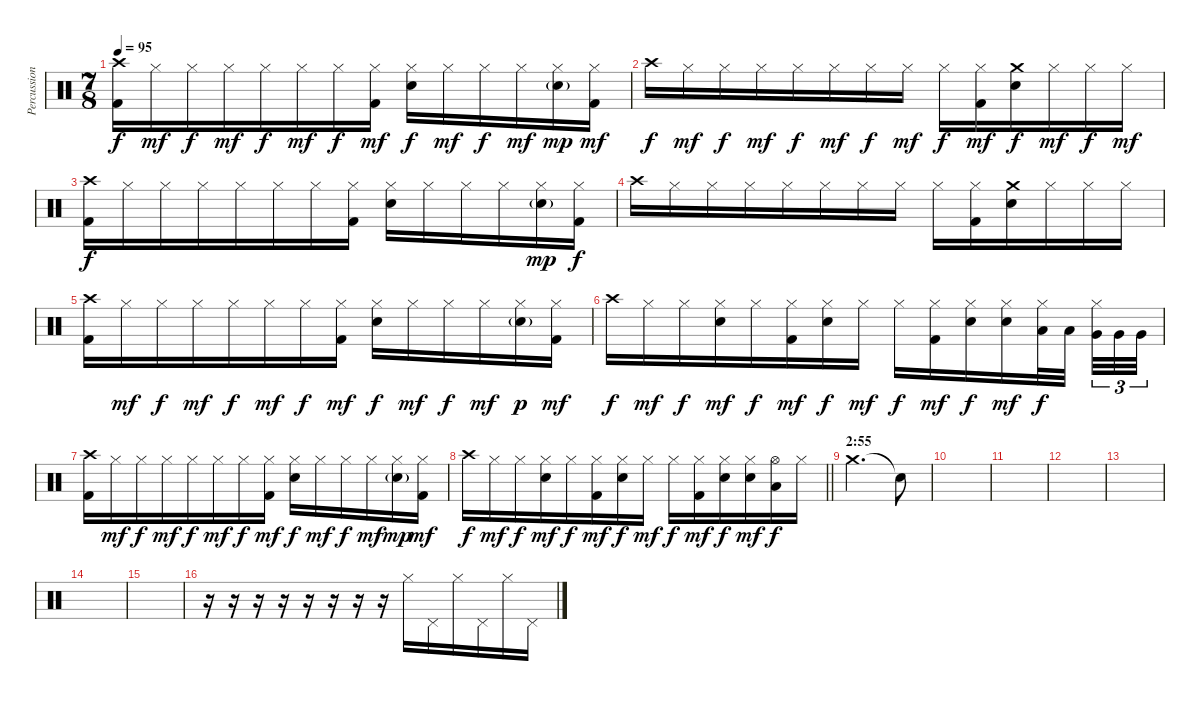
\track ("Percussion" "Percussion") {instrument percussion}
\staff {score}
\articulation defaults
\ts (7 8)
\tempo 95
\clef neutral
\ks c
("Crash high (hit)" "Kick (hit) 2").16{dy f} "Hi-Hat (closed)".16{dy mf} "Hi-Hat (closed)".16{dy f} "Hi-Hat (closed)".16{dy mf} "Hi-Hat (closed)".16{dy f} "Hi-Hat (closed)".16{dy mf} "Hi-Hat (closed)".16{dy f} ("Hi-Hat (closed)" "Kick (hit) 2").16{dy mf} ("Hi-Hat (closed)" "Electric Snare (hit)").16{dy f} "Hi-Hat (closed)".16{dy mf} "Hi-Hat (closed)".16{dy f} "Hi-Hat (closed)".16{dy mf} ("Hi-Hat (closed)" "Electric Snare (hit)"{g}).16{dy mp} ("Hi-Hat (closed)" "Kick (hit) 2").16{dy mf} |
"Crash high (hit)".16{dy f} "Hi-Hat (closed)".16{dy mf} "Hi-Hat (closed)".16{dy f} "Hi-Hat (closed)".16{dy mf} "Hi-Hat (closed)".16{dy f} "Hi-Hat (closed)".16{dy mf} "Hi-Hat (closed)".16{dy f} "Hi-Hat (closed)".16{dy mf} "Hi-Hat (closed)".16{dy f} ("Hi-Hat (closed)" "Kick (hit) 2").16{dy mf} ("Crash medium (hit)" "Electric Snare (hit)").16{dy f} "Hi-Hat (closed)".16{dy mf} "Hi-Hat (closed)".16{dy f} "Hi-Hat (closed)".16{dy mf} |
("Crash high (hit)" "Kick (hit) 2").16{dy f} "Hi-Hat (closed)".16 "Hi-Hat (closed)".16 "Hi-Hat (closed)".16 "Hi-Hat (closed)".16 "Hi-Hat (closed)".16 "Hi-Hat (closed)".16 ("Hi-Hat (closed)" "Kick (hit) 2").16 ("Hi-Hat (closed)" "Electric Snare (hit)").16 "Hi-Hat (closed)".16 "Hi-Hat (closed)".16 "Hi-Hat (closed)".16 ("Hi-Hat (closed)" "Electric Snare (hit)"{g}).16{dy mp} ("Hi-Hat (closed)" "Kick (hit) 2").16{dy f} |
"Crash high (hit)".16 "Hi-Hat (closed)".16 "Hi-Hat (closed)".16 "Hi-Hat (closed)".16 "Hi-Hat (closed)".16 "Hi-Hat (closed)".16 "Hi-Hat (closed)".16 "Hi-Hat (closed)".16 "Hi-Hat (closed)".16 ("Hi-Hat (closed)" "Kick (hit) 2").16 ("Crash medium (hit)" "Electric Snare (hit)").16 "Hi-Hat (closed)".16 "Hi-Hat (closed)".16 "Hi-Hat (closed)".16 |
("Crash high (hit)" "Kick (hit) 2").16 "Hi-Hat (closed)".16{dy mf} "Hi-Hat (closed)".16{dy f} "Hi-Hat (closed)".16{dy mf} "Hi-Hat (closed)".16{dy f} "Hi-Hat (closed)".16{dy mf} "Hi-Hat (closed)".16{dy f} ("Hi-Hat (closed)" "Kick (hit) 2").16{dy mf} ("Hi-Hat (closed)" "Electric Snare (hit)").16{dy f} "Hi-Hat (closed)".16{dy mf} "Hi-Hat (closed)".16{dy f} "Hi-Hat (closed)".16{dy mf} ("Hi-Hat (closed)" "Electric Snare (hit)"{g}).16{dy p} ("Hi-Hat (closed)" "Kick (hit) 2").16{dy mf} |
"Crash high (hit)".16{dy f} "Hi-Hat (closed)".16{dy mf} "Hi-Hat (closed)".16{dy f} ("Hi-Hat (closed)" "Electric Snare (hit)").16{dy mf} "Hi-Hat (closed)".16{dy f} ("Hi-Hat (closed)" "Kick (hit) 2").16{dy mf} ("Hi-Hat (closed)" "Electric Snare (hit)").16{dy f} "Hi-Hat (closed)".16{dy mf} "Hi-Hat (closed)".16{dy f} ("Hi-Hat (closed)" "Kick (hit) 2").16{dy mf} ("Hi-Hat (closed)" "Electric Snare (hit)").16{dy f} ("Hi-Hat (closed)" "Electric Snare (hit)").16{dy mf} ("Hi-Hat (closed)" "Low Tom (hit)").32{dy f} "Low Tom (hit)".32{beam splitsecondary} ("Hi-Hat (closed)" "Very Low Tom (hit)").32{tu (3 2)} "Very Low Tom (hit)".32{tu (3 2)} "Very Low Tom (hit)".32{tu (3 2)} |
("Crash high (hit)" "Kick (hit) 2").16 "Hi-Hat (closed)".16{dy mf} "Hi-Hat (closed)".16{dy f} "Hi-Hat (closed)".16{dy mf} "Hi-Hat (closed)".16{dy f} "Hi-Hat (closed)".16{dy mf} "Hi-Hat (closed)".16{dy f} ("Hi-Hat (closed)" "Kick (hit) 2").16{dy mf} ("Hi-Hat (closed)" "Electric Snare (hit)").16{dy f} "Hi-Hat (closed)".16{dy mf} "Hi-Hat (closed)".16{dy f} "Hi-Hat (closed)".16{dy mf} ("Hi-Hat (closed)" "Electric Snare (hit)"{g}).16{dy mp} ("Hi-Hat (closed)" "Kick (hit) 2").16{dy mf} |
\barLineRight lightlight "Crash high (hit)".16{dy f} "Hi-Hat (closed)".16{dy mf} "Hi-Hat (closed)".16{dy f}
("Hi-Hat (closed)" "Electric Snare (hit)").16{dy mf} "Hi-Hat (closed)".16{dy f} ("Hi-Hat (closed)" "Kick (hit) 2").16{dy mf} ("Hi-Hat (closed)" "Electric Snare (hit)").16{dy f} "Hi-Hat (closed)".16{dy mf} "Hi-Hat (closed)".16{dy f} ("Hi-Hat (closed)" "Kick (hit) 2").16{dy mf} ("Hi-Hat (closed)" "Electric Snare (hit)").16{dy f} ("Hi-Hat (closed)" "Electric Snare (hit)").16{dy mf} ("Hi-Hat (open)" "Low Tom (hit)").16{dy f} "Hi-Hat (closed)".16 |
\section ("" "2:55")
"Crash medium (hit)".2{d} "Snare (hit)"{t}.8 |
|
|
|
|
|
|
r.16 r.16 r.16 r.16 r.16 r.16 r.16 r.16 "Hi-Hat (closed)".16 "Pedal Hi-Hat (hit)".16 "Hi-Hat (closed)".16 "Pedal Hi-Hat (hit)".16 "Hi-Hat (closed)".16 "Pedal Hi-Hat (hit)".16
